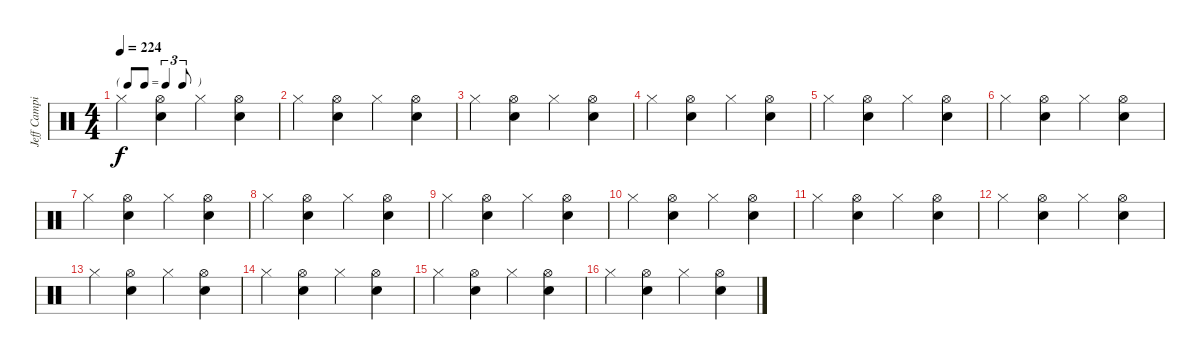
\track ("Jeff Campitelli" "Jeff Campi") {instrument percussion}
\staff {score}
\articulation defaults
\ts (4 4)
\tf triplet8th
\tempo 224
\clef neutral
\ks c "Hi-Hat (closed)".4{dy f}
("Snare (hit) 2" "Hi-Hat (open)").4 "Hi-Hat (closed)".4 ("Snare (hit) 2" "Hi-Hat (open)").4 |
"Hi-Hat (closed)".4 ("Snare (hit) 2" "Hi-Hat (open)").4 "Hi-Hat (closed)".4 ("Snare (hit) 2" "Hi-Hat (open)").4 |
"Hi-Hat (closed)".4 ("Snare (hit) 2" "Hi-Hat (open)").4 "Hi-Hat (closed)".4 ("Snare (hit) 2" "Hi-Hat (open)").4 |
"Hi-Hat (closed)".4 ("Snare (hit) 2" "Hi-Hat (open)").4 "Hi-Hat (closed)".4 ("Snare (hit) 2" "Hi-Hat (open)").4 |
"Hi-Hat (closed)".4 ("Snare (hit) 2" "Hi-Hat (open)").4 "Hi-Hat (closed)".4 ("Snare (hit) 2" "Hi-Hat (open)").4 |
"Hi-Hat (closed)".4 ("Snare (hit) 2" "Hi-Hat (open)").4 "Hi-Hat (closed)".4 ("Snare (hit) 2" "Hi-Hat (open)").4 |
"Hi-Hat (closed)".4 ("Snare (hit) 2" "Hi-Hat (open)").4 "Hi-Hat (closed)".4 ("Snare (hit) 2" "Hi-Hat (open)").4 |
"Hi-Hat (closed)".4 ("Snare (hit) 2" "Hi-Hat (open)").4 "Hi-Hat (closed)".4 ("Snare (hit) 2" "Hi-Hat (open)").4 |
"Hi-Hat (closed)".4 ("Snare (hit) 2" "Hi-Hat (open)").4 "Hi-Hat (closed)".4 ("Snare (hit) 2" "Hi-Hat (open)").4 |
"Hi-Hat (closed)".4 ("Snare (hit) 2" "Hi-Hat (open)").4 "Hi-Hat (closed)".4 ("Snare (hit) 2" "Hi-Hat (open)").4 |
"Hi-Hat (closed)".4 ("Snare (hit) 2" "Hi-Hat (open)").4 "Hi-Hat (closed)".4 ("Snare (hit) 2" "Hi-Hat (open)").4 |
"Hi-Hat (closed)".4 ("Snare (hit) 2" "Hi-Hat (open)").4 "Hi-Hat (closed)".4 ("Snare (hit) 2" "Hi-Hat (open)").4 |
"Hi-Hat (closed)".4 ("Snare (hit) 2" "Hi-Hat (open)").4 "Hi-Hat (closed)".4 ("Snare (hit) 2" "Hi-Hat (open)").4 |
"Hi-Hat (closed)".4 ("Snare (hit) 2" "Hi-Hat (open)").4 "Hi-Hat (closed)".4 ("Snare (hit) 2" "Hi-Hat (open)").4 |
"Hi-Hat (closed)".4 ("Snare (hit) 2" "Hi-Hat (open)").4 "Hi-Hat (closed)".4 ("Snare (hit) 2" "Hi-Hat (open)").4 |
"Hi-Hat (closed)".4 ("Snare (hit) 2" "Hi-Hat (open)").4 "Hi-Hat (closed)".4 ("Snare (hit) 2" "Hi-Hat (open)").4
